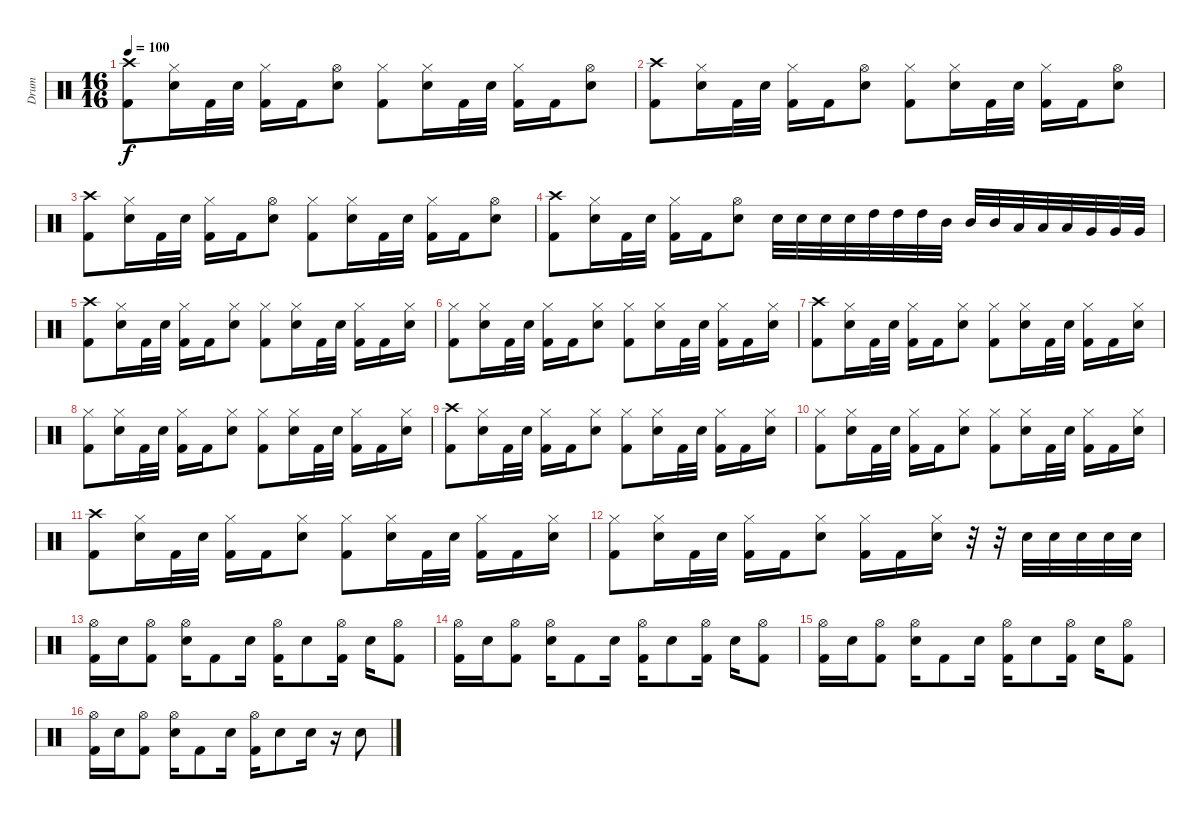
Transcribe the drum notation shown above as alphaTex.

\track ("Drum" "Drum") {instrument percussion}
\staff {score}
\articulation defaults
\ts (16 16)
\tempo 100
\clef neutral
\ks aminor
("Crash high (hit)" "Kick (hit) 2").8{dy f} ("Hi-Hat (closed)" "Snare (hit) 2").16 "Kick (hit) 2".32 "Snare (hit) 2".32 ("Hi-Hat (closed)" "Kick (hit) 2").16 "Kick (hit) 2".16 ("Hi-Hat (open)" "Snare (hit) 2").8 ("Hi-Hat (closed)" "Kick (hit) 2").8 ("Hi-Hat (closed)" "Snare (hit) 2").16 "Kick (hit) 2".32 "Snare (hit) 2".32 ("Hi-Hat (closed)" "Kick (hit) 2").16 "Kick (hit) 2".16 ("Hi-Hat (open)" "Snare (hit) 2").8 |
("Crash high (hit)" "Kick (hit) 2").8 ("Hi-Hat (closed)" "Snare (hit) 2").16 "Kick (hit) 2".32 "Snare (hit) 2".32 ("Hi-Hat (closed)" "Kick (hit) 2").16 "Kick (hit) 2".16 ("Hi-Hat (open)" "Snare (hit) 2").8 ("Hi-Hat (closed)" "Kick (hit) 2").8 ("Hi-Hat (closed)" "Snare (hit) 2").16 "Kick (hit) 2".32 "Snare (hit) 2".32 ("Hi-Hat (closed)" "Kick (hit) 2").16 "Kick (hit) 2".16 ("Hi-Hat (open)" "Snare (hit) 2").8 |
("Crash high (hit)" "Kick (hit) 2").8 ("Hi-Hat (closed)" "Snare (hit) 2").16 "Kick (hit) 2".32 "Snare (hit) 2".32 ("Hi-Hat (closed)" "Kick (hit) 2").16 "Kick (hit) 2".16 ("Hi-Hat (open)" "Snare (hit) 2").8 ("Hi-Hat (closed)" "Kick (hit) 2").8 ("Hi-Hat (closed)" "Snare (hit) 2").16 "Kick (hit) 2".32 "Snare (hit) 2".32 ("Hi-Hat (closed)" "Kick (hit) 2").16 "Kick (hit) 2".16 ("Hi-Hat (open)" "Snare (hit) 2").8 |
("Crash high (hit)" "Kick (hit) 2").8 ("Hi-Hat (closed)" "Snare (hit) 2").16 "Kick (hit) 2".32 "Snare (hit) 2".32 ("Hi-Hat (closed)" "Kick (hit) 2").16 "Kick (hit) 2".16 ("Hi-Hat (open)" "Snare (hit) 2").8 "Snare (hit) 2".32 "Snare (hit) 2".32 "Snare (hit) 2".32 "Snare (hit) 2".32 "High Tom (hit)".32 "High Tom (hit)".32 "High Tom (hit)".32 "Mid Tom (hit)".32 "Mid Tom (hit)".32 "Mid Tom (hit)".32 "Low Tom (hit)".32 "Low Tom (hit)".32 "Low Tom (hit)".32 "Very Low Tom (hit)".32 "Very Low Tom (hit)".32 "Very Low Tom (hit)".32 |
("Crash high (hit)" "Kick (hit) 2").8 ("Hi-Hat (closed)" "Snare (hit) 2").16 "Kick (hit) 2".32 "Snare (hit) 2".32 ("Hi-Hat (closed)" "Kick (hit) 2").16 "Kick (hit) 2".16 ("Hi-Hat (closed)" "Snare (hit) 2").8 ("Hi-Hat (closed)" "Kick (hit) 2").8 ("Hi-Hat (closed)" "Snare (hit) 2").16 "Kick (hit) 2".32 "Snare (hit) 2".32 ("Hi-Hat (closed)" "Kick (hit) 2").16 "Kick (hit) 2".16 ("Hi-Hat (closed)" "Snare (hit) 2").16 |
("Hi-Hat (closed)" "Kick (hit) 2").8 ("Hi-Hat (closed)" "Snare (hit) 2").16 "Kick (hit) 2".32 "Snare (hit) 2".32 ("Hi-Hat (closed)" "Kick (hit) 2").16 "Kick (hit) 2".16 ("Hi-Hat (closed)" "Snare (hit) 2").8 ("Hi-Hat (closed)" "Kick (hit) 2").8 ("Hi-Hat (closed)" "Snare (hit) 2").16 "Kick (hit) 2".32 "Snare (hit) 2".32 ("Hi-Hat (closed)" "Kick (hit) 2").16 "Kick (hit) 2".16 ("Hi-Hat (closed)" "Snare (hit) 2").16 |
("Crash high (hit)" "Kick (hit) 2").8 ("Hi-Hat (closed)" "Snare (hit) 2").16 "Kick (hit) 2".32 "Snare (hit) 2".32 ("Hi-Hat (closed)" "Kick (hit) 2").16 "Kick (hit) 2".16 ("Hi-Hat (closed)" "Snare (hit) 2").8 ("Hi-Hat (closed)" "Kick (hit) 2").8 ("Hi-Hat (closed)" "Snare (hit) 2").16 "Kick (hit) 2".32 "Snare (hit) 2".32 ("Hi-Hat (closed)" "Kick (hit) 2").16 "Kick (hit) 2".16 ("Hi-Hat (closed)" "Snare (hit) 2").16 |
("Hi-Hat (closed)" "Kick (hit) 2").8 ("Hi-Hat (closed)" "Snare (hit) 2").16 "Kick (hit) 2".32 "Snare (hit) 2".32 ("Hi-Hat (closed)" "Kick (hit) 2").16 "Kick (hit) 2".16 ("Hi-Hat (closed)" "Snare (hit) 2").8 ("Hi-Hat (closed)" "Kick (hit) 2").8 ("Hi-Hat (closed)" "Snare (hit) 2").16 "Kick (hit) 2".32 "Snare (hit) 2".32 ("Hi-Hat (closed)" "Kick (hit) 2").16 "Kick (hit) 2".16 ("Hi-Hat (closed)" "Snare (hit) 2").16 |
("Crash high (hit)" "Kick (hit) 2").8 ("Hi-Hat (closed)" "Snare (hit) 2").16 "Kick (hit) 2".32 "Snare (hit) 2".32 ("Hi-Hat (closed)" "Kick (hit) 2").16 "Kick (hit) 2".16 ("Hi-Hat (closed)" "Snare (hit) 2").8 ("Hi-Hat (closed)" "Kick (hit) 2").8 ("Hi-Hat (closed)" "Snare (hit) 2").16 "Kick (hit) 2".32 "Snare (hit) 2".32 ("Hi-Hat (closed)" "Kick (hit) 2").16 "Kick (hit) 2".16 ("Hi-Hat (closed)" "Snare (hit) 2").16 |
("Hi-Hat (closed)" "Kick (hit) 2").8 ("Hi-Hat (closed)" "Snare (hit) 2").16 "Kick (hit) 2".32 "Snare (hit) 2".32 ("Hi-Hat (closed)" "Kick (hit) 2").16 "Kick (hit) 2".16 ("Hi-Hat (closed)" "Snare (hit) 2").8 ("Hi-Hat (closed)" "Kick (hit) 2").8 ("Hi-Hat (closed)" "Snare (hit) 2").16 "Kick (hit) 2".32 "Snare (hit) 2".32 ("Hi-Hat (closed)" "Kick (hit) 2").16 "Kick (hit) 2".16 ("Hi-Hat (closed)" "Snare (hit) 2").16 |
("Crash high (hit)" "Kick (hit) 2").8 ("Hi-Hat (closed)" "Snare (hit) 2").16 "Kick (hit) 2".32 "Snare (hit) 2".32 ("Hi-Hat (closed)" "Kick (hit) 2").16 "Kick (hit) 2".16 ("Hi-Hat (closed)" "Snare (hit) 2").8 ("Hi-Hat (closed)" "Kick (hit) 2").8 ("Hi-Hat (closed)" "Snare (hit) 2").16 "Kick (hit) 2".32 "Snare (hit) 2".32 ("Hi-Hat (closed)" "Kick (hit) 2").16 "Kick (hit) 2".16 ("Hi-Hat (closed)" "Snare (hit) 2").16 |
("Hi-Hat (closed)" "Kick (hit) 2").8 ("Hi-Hat (closed)" "Snare (hit) 2").16 "Kick (hit) 2".32 "Snare (hit) 2".32 ("Hi-Hat (closed)" "Kick (hit) 2").16 "Kick (hit) 2".16 ("Hi-Hat (closed)" "Snare (hit) 2").8 ("Hi-Hat (closed)" "Kick (hit) 2").16 "Kick (hit) 2".16 ("Hi-Hat (closed)" "Snare (hit) 2").16 r.32 r.32 "Snare (hit) 2".32 "Snare (hit) 2".32 "Snare (hit) 2".32 "Snare (hit) 2".32 "Snare (hit) 2".32 |
("Hi-Hat (open)" "Kick (hit) 2").16 "Snare (hit) 2".16 ("Hi-Hat (open)" "Kick (hit) 2").8 ("Hi-Hat (open)" "Snare (hit) 2").16 "Kick (hit) 2".8 "Snare (hit) 2".16 ("Hi-Hat (open)" "Kick (hit) 2").16 "Snare (hit) 2".8 ("Hi-Hat (open)" "Kick (hit) 2").16 "Snare (hit) 2".16 ("Hi-Hat (open)" "Kick (hit) 2").8 |
("Hi-Hat (open)" "Kick (hit) 2").16 "Snare (hit) 2".16 ("Hi-Hat (open)" "Kick (hit) 2").8 ("Hi-Hat (open)" "Snare (hit) 2").16 "Kick (hit) 2".8 "Snare (hit) 2".16 ("Hi-Hat (open)" "Kick (hit) 2").16 "Snare (hit) 2".8 ("Hi-Hat (open)" "Kick (hit) 2").16 "Snare (hit) 2".16 ("Hi-Hat (open)" "Kick (hit) 2").8 |
("Hi-Hat (open)" "Kick (hit) 2").16 "Snare (hit) 2".16 ("Hi-Hat (open)" "Kick (hit) 2").8 ("Hi-Hat (open)" "Snare (hit) 2").16 "Kick (hit) 2".8 "Snare (hit) 2".16 ("Hi-Hat (open)" "Kick (hit) 2").16 "Snare (hit) 2".8 ("Hi-Hat (open)" "Kick (hit) 2").16 "Snare (hit) 2".16 ("Hi-Hat (open)" "Kick (hit) 2").8 |
("Hi-Hat (open)" "Kick (hit) 2").16 "Snare (hit) 2".16 ("Hi-Hat (open)" "Kick (hit) 2").8 ("Hi-Hat (open)" "Snare (hit) 2").16 "Kick (hit) 2".8 "Snare (hit) 2".16 ("Hi-Hat (open)" "Kick (hit) 2").16 "Snare (hit) 2".8 "Snare (hit) 2".16 r.16 "Snare (hit) 2".8
